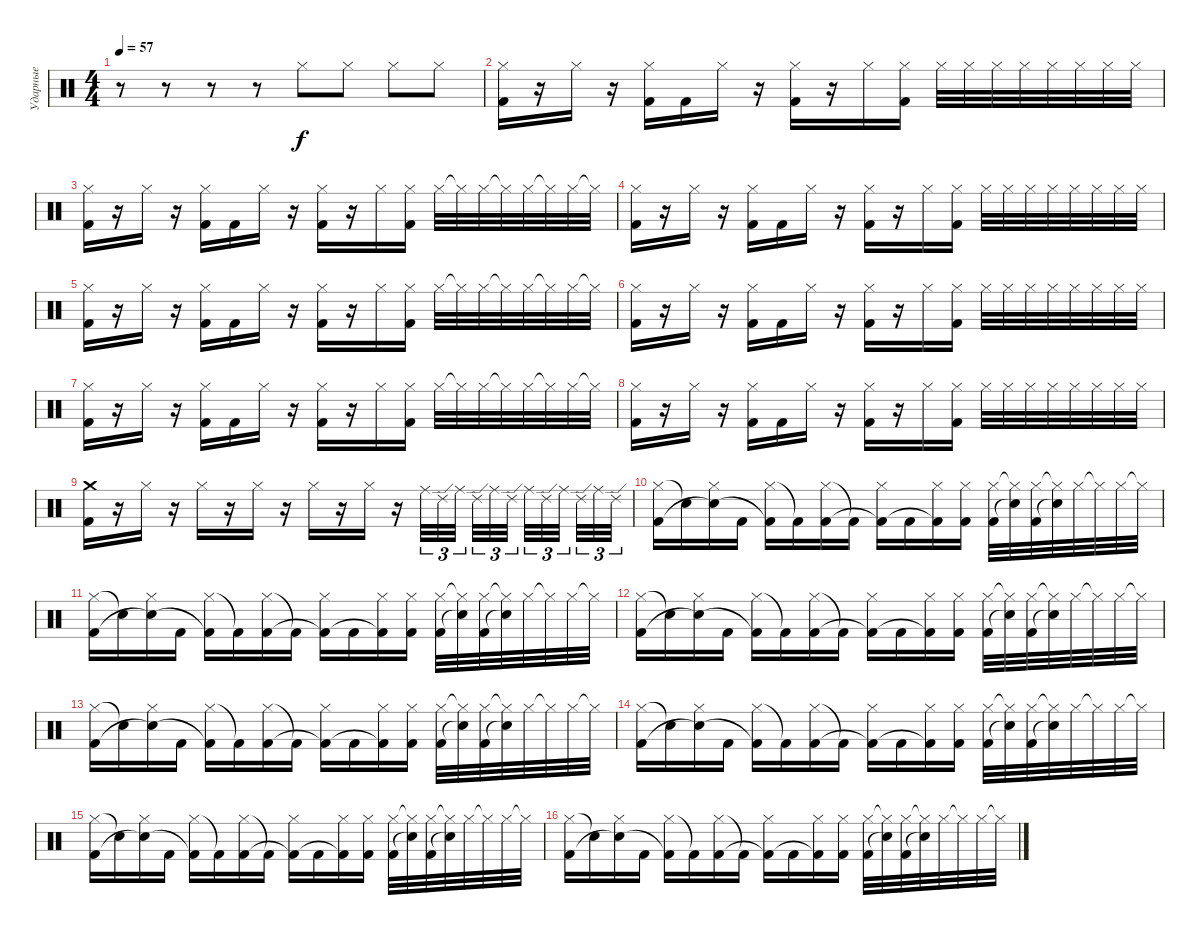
\track ("Ударные" "Ударные") {instrument percussion}
\staff {score}
\articulation defaults
\ts (4 4)
\tempo 57
\clef neutral
\ks c
r.8{dy f} r.8 r.8 r.8 "Hi-Hat (closed)".8 "Hi-Hat (closed)".8 "Hi-Hat (closed)".8 "Hi-Hat (closed)".8 |
("Hi-Hat (closed)" "Kick (hit) 2").16 r.16 "Hi-Hat (closed)".16 r.16 ("Hi-Hat (closed)" "Kick (hit) 2").16 "Kick (hit) 2".16 "Hi-Hat (closed)".16 r.16 ("Hi-Hat (closed)" "Kick (hit) 2").16 r.16 "Hi-Hat (closed)".16 ("Hi-Hat (closed)" "Kick (hit) 2").16 "Hi-Hat (closed)".32 "Hi-Hat (closed)".32 "Hi-Hat (closed)".32 "Hi-Hat (closed)".32 "Hi-Hat (closed)".32 "Hi-Hat (closed)".32 "Hi-Hat (closed)".32 "Hi-Hat (closed)".32 |
("Hi-Hat (closed)" "Kick (hit) 2").16 r.16 "Hi-Hat (closed)".16 r.16 ("Hi-Hat (closed)" "Kick (hit) 2").16 "Kick (hit) 2".16 "Hi-Hat (closed)".16 r.16 ("Hi-Hat (closed)" "Kick (hit) 2").16 r.16 "Hi-Hat (closed)".16 ("Hi-Hat (closed)" "Kick (hit) 2").16 "Hi-Hat (closed)".32 "Hi-Hat (closed)"{t}.32 "Hi-Hat (closed)".32 "Hi-Hat (closed)"{t}.32 "Hi-Hat (closed)".32 "Hi-Hat (closed)"{t}.32 "Hi-Hat (closed)".32 "Hi-Hat (closed)"{t}.32 |
("Hi-Hat (closed)" "Kick (hit) 2").16 r.16 "Hi-Hat (closed)".16 r.16 ("Hi-Hat (closed)" "Kick (hit) 2").16 "Kick (hit) 2".16 "Hi-Hat (closed)".16 r.16 ("Hi-Hat (closed)" "Kick (hit) 2").16 r.16 "Hi-Hat (closed)".16 ("Hi-Hat (closed)" "Kick (hit) 2").16 "Hi-Hat (closed)".32 "Hi-Hat (closed)".32 "Hi-Hat (closed)".32 "Hi-Hat (closed)".32 "Hi-Hat (closed)".32 "Hi-Hat (closed)".32 "Hi-Hat (closed)".32 "Hi-Hat (closed)".32 |
("Hi-Hat (closed)" "Kick (hit) 2").16 r.16 "Hi-Hat (closed)".16 r.16 ("Hi-Hat (closed)" "Kick (hit) 2").16 "Kick (hit) 2".16 "Hi-Hat (closed)".16 r.16 ("Hi-Hat (closed)" "Kick (hit) 2").16 r.16 "Hi-Hat (closed)".16 ("Hi-Hat (closed)" "Kick (hit) 2").16 "Hi-Hat (closed)".32 "Hi-Hat (closed)"{t}.32 "Hi-Hat (closed)".32 "Hi-Hat (closed)"{t}.32 "Hi-Hat (closed)".32 "Hi-Hat (closed)"{t}.32 "Hi-Hat (closed)".32 "Hi-Hat (closed)"{t}.32 |
("Hi-Hat (closed)" "Kick (hit) 2").16 r.16 "Hi-Hat (closed)".16 r.16 ("Hi-Hat (closed)" "Kick (hit) 2").16 "Kick (hit) 2".16 "Hi-Hat (closed)".16 r.16 ("Hi-Hat (closed)" "Kick (hit) 2").16 r.16 "Hi-Hat (closed)".16 ("Hi-Hat (closed)" "Kick (hit) 2").16 "Hi-Hat (closed)".32 "Hi-Hat (closed)".32 "Hi-Hat (closed)".32 "Hi-Hat (closed)".32 "Hi-Hat (closed)".32 "Hi-Hat (closed)".32 "Hi-Hat (closed)".32 "Hi-Hat (closed)".32 |
("Hi-Hat (closed)" "Kick (hit) 2").16 r.16 "Hi-Hat (closed)".16 r.16 ("Hi-Hat (closed)" "Kick (hit) 2").16 "Kick (hit) 2".16 "Hi-Hat (closed)".16 r.16 ("Hi-Hat (closed)" "Kick (hit) 2").16 r.16 "Hi-Hat (closed)".16 ("Hi-Hat (closed)" "Kick (hit) 2").16 "Hi-Hat (closed)".32 "Hi-Hat (closed)"{t}.32 "Hi-Hat (closed)".32 "Hi-Hat (closed)"{t}.32 "Hi-Hat (closed)".32 "Hi-Hat (closed)"{t}.32 "Hi-Hat (closed)".32 "Hi-Hat (closed)"{t}.32 |
("Hi-Hat (closed)" "Kick (hit) 2").16 r.16 "Hi-Hat (closed)".16 r.16 ("Hi-Hat (closed)" "Kick (hit) 2").16 "Kick (hit) 2".16 "Hi-Hat (closed)".16 r.16 ("Hi-Hat (closed)" "Kick (hit) 2").16 r.16 "Hi-Hat (closed)".16 ("Hi-Hat (closed)" "Kick (hit) 2").16 "Hi-Hat (closed)".32 "Hi-Hat (closed)".32 "Hi-Hat (closed)".32 "Hi-Hat (closed)".32 "Hi-Hat (closed)".32 "Hi-Hat (closed)".32 "Hi-Hat (closed)".32 "Hi-Hat (closed)".32 |
("Crash medium (hit)" "Kick (hit) 2").16 r.16 "Hi-Hat (closed)".16 r.16 "Hi-Hat (closed)".16 r.16 "Hi-Hat (closed)".16 r.16 "Hi-Hat (closed)".16 r.16 "Hi-Hat (closed)".16 r.16 "Ride (middle)".32{tu (3 2)} "Ride (edge) 2".32{tu (3 2)} "Ride (middle)".32{tu (3 2)} "Ride (edge) 2".32{tu (3 2)} "Ride (middle)".32{tu (3 2)} "Ride (edge) 2".32{tu (3 2)} "Ride (middle)".32{tu (3 2)} "Ride (edge) 2".32{tu (3 2)} "Ride (middle)".32{tu (3 2)} "Ride (edge) 2".32{tu (3 2)} "Ride (middle)".32{tu (3 2)} "Ride (edge) 2".32{tu (3 2)} |
("Hi-Hat (closed)" "Kick (hit) 2").16 "Snare (hit)"{t}.16 ("Hi-Hat (closed)" "Snare (hit)"{t}).16 "Kick (hit) 2".16 ("Hi-Hat (closed)" "Kick (hit) 2"{t}).16 "Kick (hit) 2"{t}.16 ("Hi-Hat (closed)" "Kick (hit) 2").16 "Kick (hit) 2"{t}.16 ("Hi-Hat (closed)" "Kick (hit) 2"{t}).16 "Kick (hit) 2".16 ("Hi-Hat (closed)" "Kick (hit) 2"{t}).16 ("Hi-Hat (closed)" "Kick (hit) 2").16 ("Hi-Hat (closed)" "Kick (hit) 2").32 ("Hi-Hat (closed)"{t} "Snare (hit)"{t}).32 ("Hi-Hat (closed)" "Kick (hit) 2").32 ("Hi-Hat (closed)"{t} "Snare (hit)"{t}).32 "Hi-Hat (closed)".32 "Hi-Hat (closed)"{t}.32 "Hi-Hat (closed)".32 "Hi-Hat (closed)"{t}.32 |
("Hi-Hat (closed)" "Kick (hit) 2").16 "Snare (hit)"{t}.16 ("Hi-Hat (closed)" "Snare (hit)"{t}).16 "Kick (hit) 2".16 ("Hi-Hat (closed)" "Kick (hit) 2"{t}).16 "Kick (hit) 2"{t}.16 ("Hi-Hat (closed)" "Kick (hit) 2").16 "Kick (hit) 2"{t}.16 ("Hi-Hat (closed)" "Kick (hit) 2"{t}).16 "Kick (hit) 2".16 ("Hi-Hat (closed)" "Kick (hit) 2"{t}).16 ("Hi-Hat (closed)" "Kick (hit) 2").16 ("Hi-Hat (closed)" "Kick (hit) 2").32 ("Hi-Hat (closed)"{t} "Snare (hit)"{t}).32 ("Hi-Hat (closed)" "Kick (hit) 2").32 ("Hi-Hat (closed)"{t} "Snare (hit)"{t}).32 "Hi-Hat (closed)".32 "Hi-Hat (closed)"{t}.32 "Hi-Hat (closed)".32 "Hi-Hat (closed)"{t}.32 |
("Hi-Hat (closed)" "Kick (hit) 2").16 "Snare (hit)"{t}.16 ("Hi-Hat (closed)" "Snare (hit)"{t}).16 "Kick (hit) 2".16 ("Hi-Hat (closed)" "Kick (hit) 2"{t}).16 "Kick (hit) 2"{t}.16 ("Hi-Hat (closed)" "Kick (hit) 2").16 "Kick (hit) 2"{t}.16 ("Hi-Hat (closed)" "Kick (hit) 2"{t}).16 "Kick (hit) 2".16 ("Hi-Hat (closed)" "Kick (hit) 2"{t}).16 ("Hi-Hat (closed)" "Kick (hit) 2").16 ("Hi-Hat (closed)" "Kick (hit) 2").32 ("Hi-Hat (closed)"{t} "Snare (hit)"{t}).32 ("Hi-Hat (closed)" "Kick (hit) 2").32 ("Hi-Hat (closed)"{t} "Snare (hit)"{t}).32 "Hi-Hat (closed)".32 "Hi-Hat (closed)"{t}.32 "Hi-Hat (closed)".32 "Hi-Hat (closed)"{t}.32 |
("Hi-Hat (closed)" "Kick (hit) 2").16 "Snare (hit)"{t}.16 ("Hi-Hat (closed)" "Snare (hit)"{t}).16 "Kick (hit) 2".16 ("Hi-Hat (closed)" "Kick (hit) 2"{t}).16 "Kick (hit) 2"{t}.16 ("Hi-Hat (closed)" "Kick (hit) 2").16 "Kick (hit) 2"{t}.16 ("Hi-Hat (closed)" "Kick (hit) 2"{t}).16 "Kick (hit) 2".16 ("Hi-Hat (closed)" "Kick (hit) 2"{t}).16 ("Hi-Hat (closed)" "Kick (hit) 2").16 ("Hi-Hat (closed)" "Kick (hit) 2").32 ("Hi-Hat (closed)"{t} "Snare (hit)"{t}).32 ("Hi-Hat (closed)" "Kick (hit) 2").32 ("Hi-Hat (closed)"{t} "Snare (hit)"{t}).32 "Hi-Hat (closed)".32 "Hi-Hat (closed)"{t}.32 "Hi-Hat (closed)".32 "Hi-Hat (closed)"{t}.32 |
("Hi-Hat (closed)" "Kick (hit) 2").16 "Snare (hit)"{t}.16 ("Hi-Hat (closed)" "Snare (hit)"{t}).16 "Kick (hit) 2".16 ("Hi-Hat (closed)" "Kick (hit) 2"{t}).16 "Kick (hit) 2"{t}.16 ("Hi-Hat (closed)" "Kick (hit) 2").16 "Kick (hit) 2"{t}.16 ("Hi-Hat (closed)" "Kick (hit) 2"{t}).16 "Kick (hit) 2".16 ("Hi-Hat (closed)" "Kick (hit) 2"{t}).16 ("Hi-Hat (closed)" "Kick (hit) 2").16 ("Hi-Hat (closed)" "Kick (hit) 2").32 ("Hi-Hat (closed)"{t} "Snare (hit)"{t}).32 ("Hi-Hat (closed)" "Kick (hit) 2").32 ("Hi-Hat (closed)"{t} "Snare (hit)"{t}).32 "Hi-Hat (closed)".32 "Hi-Hat (closed)"{t}.32 "Hi-Hat (closed)".32 "Hi-Hat (closed)"{t}.32 |
("Hi-Hat (closed)" "Kick (hit) 2").16 "Snare (hit)"{t}.16 ("Hi-Hat (closed)" "Snare (hit)"{t}).16 "Kick (hit) 2".16 ("Hi-Hat (closed)" "Kick (hit) 2"{t}).16 "Kick (hit) 2"{t}.16 ("Hi-Hat (closed)" "Kick (hit) 2").16 "Kick (hit) 2"{t}.16 ("Hi-Hat (closed)" "Kick (hit) 2"{t}).16 "Kick (hit) 2".16 ("Hi-Hat (closed)" "Kick (hit) 2"{t}).16 ("Hi-Hat (closed)" "Kick (hit) 2").16 ("Hi-Hat (closed)" "Kick (hit) 2").32 ("Hi-Hat (closed)"{t} "Snare (hit)"{t}).32 ("Hi-Hat (closed)" "Kick (hit) 2").32 ("Hi-Hat (closed)"{t} "Snare (hit)"{t}).32 "Hi-Hat (closed)".32 "Hi-Hat (closed)"{t}.32 "Hi-Hat (closed)".32 "Hi-Hat (closed)"{t}.32 |
("Hi-Hat (closed)" "Kick (hit) 2").16 "Snare (hit)"{t}.16 ("Hi-Hat (closed)" "Snare (hit)"{t}).16 "Kick (hit) 2".16 ("Hi-Hat (closed)" "Kick (hit) 2"{t}).16 "Kick (hit) 2"{t}.16 ("Hi-Hat (closed)" "Kick (hit) 2").16 "Kick (hit) 2"{t}.16 ("Hi-Hat (closed)" "Kick (hit) 2"{t}).16 "Kick (hit) 2".16 ("Hi-Hat (closed)" "Kick (hit) 2"{t}).16 ("Hi-Hat (closed)" "Kick (hit) 2").16 ("Hi-Hat (closed)" "Kick (hit) 2").32 ("Hi-Hat (closed)"{t} "Snare (hit)"{t}).32 ("Hi-Hat (closed)" "Kick (hit) 2").32 ("Hi-Hat (closed)"{t} "Snare (hit)"{t}).32 "Hi-Hat (closed)".32 "Hi-Hat (closed)"{t}.32 "Hi-Hat (closed)".32 "Hi-Hat (closed)"{t}.32
